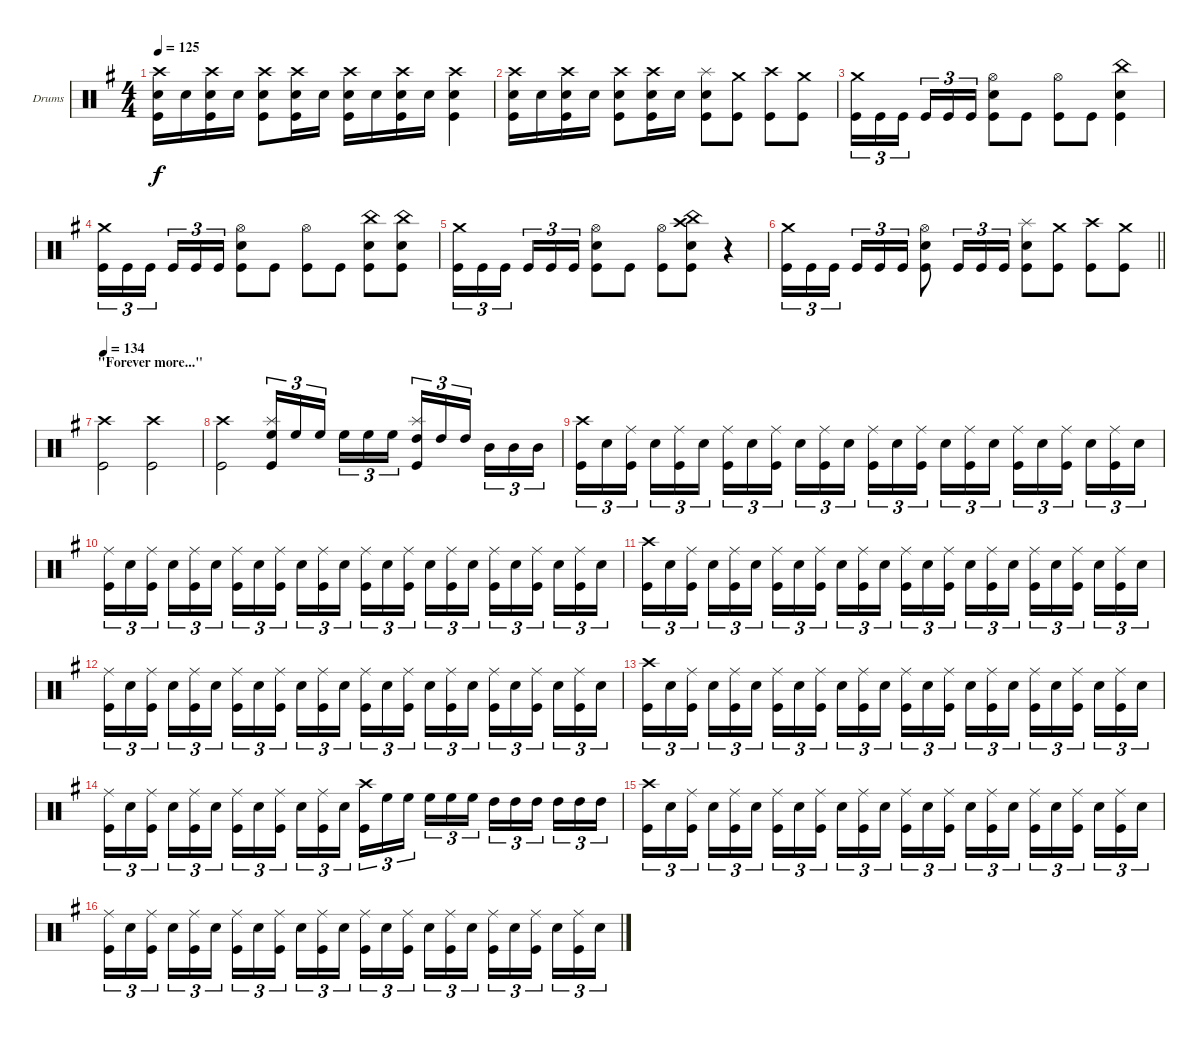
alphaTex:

\bracketExtendMode groupsimilarinstruments
\firstSystemTrackNameOrientation horizontal
\otherSystemsTrackNameOrientation horizontal
\track ("Drumkit" "Drums") {instrument percussion}
\staff {score}
\articulation defaults
\ts (4 4)
\tempo 125
\clef neutral
\scale
0.5
\ks g
("Crash high (hit)" "Snare (hit) 2" "Kick (hit)").16{dy f} "Snare (hit) 2".16 ("Crash high (hit)" "Snare (hit) 2" "Kick (hit)").16 "Snare (hit) 2".16 ("Crash high (hit)" "Snare (hit) 2" "Kick (hit)").8 ("Crash high (hit)" "Snare (hit) 2" "Kick (hit)").16 "Snare (hit) 2".16 ("Crash high (hit)" "Snare (hit) 2" "Kick (hit)").16 "Snare (hit) 2".16 ("Crash high (hit)" "Snare (hit) 2" "Kick (hit)").16 "Snare (hit) 2".16 ("Crash high (hit)" "Snare (hit) 2" "Kick (hit)").4 |
\scale
0.460317 ("Crash high (hit)" "Snare (hit) 2" "Kick (hit)").16 "Snare (hit) 2".16 ("Crash high (hit)" "Snare (hit) 2" "Kick (hit)").16 "Snare (hit) 2".16 ("Crash high (hit)" "Snare (hit) 2" "Kick (hit)").8 ("Crash high (hit)" "Snare (hit) 2" "Kick (hit)").16 "Snare (hit) 2".16 ("Splash (hit)" "Snare (hit) 2" "Kick (hit)").8 ("Crash medium (hit)" "Kick (hit)").8 ("Crash high (hit)" "Kick (hit)").8 ("Crash medium (hit)" "Kick (hit)").8 |
\scale
0.539683 ("Crash medium (hit)" "Kick (hit)").16{tu (3 2)} "Kick (hit)".16{tu (3 2)} "Kick (hit)".16{tu (3 2)} "Kick (hit)".16{tu (3 2)} "Kick (hit)".16{tu (3 2)} "Kick (hit)".16{tu (3 2)} ("Hi-Hat (open)" "Snare (hit) 2" "Kick (hit)").8 "Kick (hit)".8 ("Hi-Hat (open)" "Kick (hit)").8 "Kick (hit)".8 ("China (hit)" "Snare (hit) 2" "Kick (hit)").4 |
\scale
0.514286 ("Crash medium (hit)" "Kick (hit)").16{tu (3 2)} "Kick (hit)".16{tu (3 2)} "Kick (hit)".16{tu (3 2)} "Kick (hit)".16{tu (3 2)} "Kick (hit)".16{tu (3 2)} "Kick (hit)".16{tu (3 2)} ("Hi-Hat (open)" "Snare (hit) 2" "Kick (hit)").8 "Kick (hit)".8 ("Hi-Hat (open)" "Kick (hit)").8 "Kick (hit)".8 ("China (hit)" "Snare (hit) 2" "Kick (hit)").8 ("China (hit)" "Snare (hit) 2" "Kick (hit)").8 |
\scale
0.485714 ("Crash medium (hit)" "Kick (hit)").16{tu (3 2)} "Kick (hit)".16{tu (3 2)} "Kick (hit)".16{tu (3 2)} "Kick (hit)".16{tu (3 2)} "Kick (hit)".16{tu (3 2)} "Kick (hit)".16{tu (3 2)} ("Hi-Hat (open)" "Snare (hit) 2" "Kick (hit)").8 "Kick (hit)".8 ("Hi-Hat (open)" "Kick (hit)").8 ("China (hit)" "Crash high (hit)" "Snare (hit) 2" "Kick (hit)").8 r.4 |
\scale
0.745856
\barLineRight lightlight
("Crash medium (hit)" "Kick (hit)").16{tu (3 2)} "Kick (hit)".16{tu (3 2)} "Kick (hit)".16{tu (3 2)} "Kick (hit)".16{tu (3 2)} "Kick (hit)".16{tu (3 2)} "Kick (hit)".16{tu (3 2)} ("Hi-Hat (open)" "Snare (hit) 2" "Kick (hit)").8 "Kick (hit)".16{tu (3 2)} "Kick (hit)".16{tu (3 2)} "Kick (hit)".16{tu (3 2)} ("Splash (hit)" "Snare (hit) 2" "Kick (hit)").8 ("Crash medium (hit)" "Kick (hit)").8 ("Crash high (hit)" "Kick (hit)").8 ("Crash medium (hit)" "Kick (hit)").8 |
\section ("" "\"Forever more...\"")
\tempo 134
\scale
0.254144 ("Crash high (hit)" "Kick (hit)").2 ("Crash high (hit)" "Kick (hit)").2 |
\scale
0.4 ("Crash high (hit)" "Kick (hit)").2 ("Splash (hit)" "High Floor Tom (hit)" "Kick (hit)").16{tu (3 2)} "High Floor Tom (hit)".16{tu (3 2)} "High Floor Tom (hit)".16{tu (3 2)} "High Floor Tom (hit)".16{tu (3 2)} "High Floor Tom (hit)".16{tu (3 2)} "High Floor Tom (hit)".16{tu (3 2)} ("Splash (hit)" "High Tom (hit)" "Kick (hit)").16{tu (3 2)} "High Tom (hit)".16{tu (3 2)} "High Tom (hit)".16{tu (3 2)} "Mid Tom (hit)".16{tu (3 2)} "Mid Tom (hit)".16{tu (3 2)} "Mid Tom (hit)".16{tu (3 2)} |
\scale
0.6 ("Crash high (hit)" "Kick (hit)").16{tu (3 2)} "Snare (hit) 2".16{tu (3 2)} ("Ride (middle)" "Kick (hit)").16{tu (3 2)} "Snare (hit) 2".16{tu (3 2)} ("Ride (middle)" "Kick (hit)").16{tu (3 2)} "Snare (hit) 2".16{tu (3 2)} ("Ride (middle)" "Kick (hit)").16{tu (3 2)} "Snare (hit) 2".16{tu (3 2)} ("Ride (middle)" "Kick (hit)").16{tu (3 2)} "Snare (hit) 2".16{tu (3 2)} ("Ride (middle)" "Kick (hit)").16{tu (3 2)} "Snare (hit) 2".16{tu (3 2)} ("Ride (middle)" "Kick (hit)").16{tu (3 2)} "Snare (hit) 2".16{tu (3 2)} ("Ride (middle)" "Kick (hit)").16{tu (3 2)} "Snare (hit) 2".16{tu (3 2)} ("Ride (middle)" "Kick (hit)").16{tu (3 2)} "Snare (hit) 2".16{tu (3 2)} ("Ride (middle)" "Kick (hit)").16{tu (3 2)} "Snare (hit) 2".16{tu (3 2)} ("Ride (middle)" "Kick (hit)").16{tu (3 2)} "Snare (hit) 2".16{tu (3 2)} ("Ride (middle)" "Kick (hit)").16{tu (3 2)} "Snare (hit) 2".16{tu (3 2)} |
\scale
0.5 ("Ride (middle)" "Kick (hit)").16{tu (3 2)} "Snare (hit) 2".16{tu (3 2)} ("Ride (middle)" "Kick (hit)").16{tu (3 2)} "Snare (hit) 2".16{tu (3 2)} ("Ride (middle)" "Kick (hit)").16{tu (3 2)} "Snare (hit) 2".16{tu (3 2)} ("Ride (middle)" "Kick (hit)").16{tu (3 2)} "Snare (hit) 2".16{tu (3 2)} ("Ride (middle)" "Kick (hit)").16{tu (3 2)} "Snare (hit) 2".16{tu (3 2)} ("Ride (middle)" "Kick (hit)").16{tu (3 2)} "Snare (hit) 2".16{tu (3 2)} ("Ride (middle)" "Kick (hit)").16{tu (3 2)} "Snare (hit) 2".16{tu (3 2)} ("Ride (middle)" "Kick (hit)").16{tu (3 2)} "Snare (hit) 2".16{tu (3 2)} ("Ride (middle)" "Kick (hit)").16{tu (3 2)} "Snare (hit) 2".16{tu (3 2)} ("Ride (middle)" "Kick (hit)").16{tu (3 2)} "Snare (hit) 2".16{tu (3 2)} ("Ride (middle)" "Kick (hit)").16{tu (3 2)} "Snare (hit) 2".16{tu (3 2)} ("Ride (middle)" "Kick (hit)").16{tu (3 2)} "Snare (hit) 2".16{tu (3 2)} |
\scale
0.5 ("Crash high (hit)" "Kick (hit)").16{tu (3 2)} "Snare (hit) 2".16{tu (3 2)} ("Ride (middle)" "Kick (hit)").16{tu (3 2)} "Snare (hit) 2".16{tu (3 2)} ("Ride (middle)" "Kick (hit)").16{tu (3 2)} "Snare (hit) 2".16{tu (3 2)} ("Ride (middle)" "Kick (hit)").16{tu (3 2)} "Snare (hit) 2".16{tu (3 2)} ("Ride (middle)" "Kick (hit)").16{tu (3 2)} "Snare (hit) 2".16{tu (3 2)} ("Ride (middle)" "Kick (hit)").16{tu (3 2)} "Snare (hit) 2".16{tu (3 2)} ("Ride (middle)" "Kick (hit)").16{tu (3 2)} "Snare (hit) 2".16{tu (3 2)} ("Ride (middle)" "Kick (hit)").16{tu (3 2)} "Snare (hit) 2".16{tu (3 2)} ("Ride (middle)" "Kick (hit)").16{tu (3 2)} "Snare (hit) 2".16{tu (3 2)} ("Ride (middle)" "Kick (hit)").16{tu (3 2)} "Snare (hit) 2".16{tu (3 2)} ("Ride (middle)" "Kick (hit)").16{tu (3 2)} "Snare (hit) 2".16{tu (3 2)} ("Ride (middle)" "Kick (hit)").16{tu (3 2)} "Snare (hit) 2".16{tu (3 2)} |
\scale
0.5 ("Ride (middle)" "Kick (hit)").16{tu (3 2)} "Snare (hit) 2".16{tu (3 2)} ("Ride (middle)" "Kick (hit)").16{tu (3 2)} "Snare (hit) 2".16{tu (3 2)} ("Ride (middle)" "Kick (hit)").16{tu (3 2)} "Snare (hit) 2".16{tu (3 2)} ("Ride (middle)" "Kick (hit)").16{tu (3 2)} "Snare (hit) 2".16{tu (3 2)} ("Ride (middle)" "Kick (hit)").16{tu (3 2)} "Snare (hit) 2".16{tu (3 2)} ("Ride (middle)" "Kick (hit)").16{tu (3 2)} "Snare (hit) 2".16{tu (3 2)} ("Ride (middle)" "Kick (hit)").16{tu (3 2)} "Snare (hit) 2".16{tu (3 2)} ("Ride (middle)" "Kick (hit)").16{tu (3 2)} "Snare (hit) 2".16{tu (3 2)} ("Ride (middle)" "Kick (hit)").16{tu (3 2)} "Snare (hit) 2".16{tu (3 2)} ("Ride (middle)" "Kick (hit)").16{tu (3 2)} "Snare (hit) 2".16{tu (3 2)} ("Ride (middle)" "Kick (hit)").16{tu (3 2)} "Snare (hit) 2".16{tu (3 2)} ("Ride (middle)" "Kick (hit)").16{tu (3 2)} "Snare (hit) 2".16{tu (3 2)} |
\scale
0.5 ("Crash high (hit)" "Kick (hit)").16{tu (3 2)} "Snare (hit) 2".16{tu (3 2)} ("Ride (middle)" "Kick (hit)").16{tu (3 2)} "Snare (hit) 2".16{tu (3 2)} ("Ride (middle)" "Kick (hit)").16{tu (3 2)} "Snare (hit) 2".16{tu (3 2)} ("Ride (middle)" "Kick (hit)").16{tu (3 2)} "Snare (hit) 2".16{tu (3 2)} ("Ride (middle)" "Kick (hit)").16{tu (3 2)} "Snare (hit) 2".16{tu (3 2)} ("Ride (middle)" "Kick (hit)").16{tu (3 2)} "Snare (hit) 2".16{tu (3 2)} ("Ride (middle)" "Kick (hit)").16{tu (3 2)} "Snare (hit) 2".16{tu (3 2)} ("Ride (middle)" "Kick (hit)").16{tu (3 2)} "Snare (hit) 2".16{tu (3 2)} ("Ride (middle)" "Kick (hit)").16{tu (3 2)} "Snare (hit) 2".16{tu (3 2)} ("Ride (middle)" "Kick (hit)").16{tu (3 2)} "Snare (hit) 2".16{tu (3 2)} ("Ride (middle)" "Kick (hit)").16{tu (3 2)} "Snare (hit) 2".16{tu (3 2)} ("Ride (middle)" "Kick (hit)").16{tu (3 2)} "Snare (hit) 2".16{tu (3 2)} |
\scale
0.5 ("Ride (middle)" "Kick (hit)").16{tu (3 2)} "Snare (hit) 2".16{tu (3 2)} ("Ride (middle)" "Kick (hit)").16{tu (3 2)} "Snare (hit) 2".16{tu (3 2)} ("Ride (middle)" "Kick (hit)").16{tu (3 2)} "Snare (hit) 2".16{tu (3 2)} ("Ride (middle)" "Kick (hit)").16{tu (3 2)} "Snare (hit) 2".16{tu (3 2)} ("Ride (middle)" "Kick (hit)").16{tu (3 2)} "Snare (hit) 2".16{tu (3 2)} ("Ride (middle)" "Kick (hit)").16{tu (3 2)} "Snare (hit) 2".16{tu (3 2)} ("Crash high (hit)" "Kick (hit)").16{tu (3 2)} "High Floor Tom (hit)".16{tu (3 2)} "High Floor Tom (hit)".16{tu (3 2)} "High Floor Tom (hit)".16{tu (3 2)} "High Floor Tom (hit)".16{tu (3 2)} "High Floor Tom (hit)".16{tu (3 2)} "High Tom (hit)".16{tu (3 2)} "High Tom (hit)".16{tu (3 2)} "High Tom (hit)".16{tu (3 2)} "High Tom (hit)".16{tu (3 2)} "High Tom (hit)".16{tu (3 2)} "High Tom (hit)".16{tu (3 2)} |
\scale
0.5 ("Crash high (hit)" "Kick (hit)").16{tu (3 2)} "Snare (hit) 2".16{tu (3 2)} ("Ride (middle)" "Kick (hit)").16{tu (3 2)} "Snare (hit) 2".16{tu (3 2)} ("Ride (middle)" "Kick (hit)").16{tu (3 2)} "Snare (hit) 2".16{tu (3 2)} ("Ride (middle)" "Kick (hit)").16{tu (3 2)} "Snare (hit) 2".16{tu (3 2)} ("Ride (middle)" "Kick (hit)").16{tu (3 2)} "Snare (hit) 2".16{tu (3 2)} ("Ride (middle)" "Kick (hit)").16{tu (3 2)} "Snare (hit) 2".16{tu (3 2)} ("Ride (middle)" "Kick (hit)").16{tu (3 2)} "Snare (hit) 2".16{tu (3 2)} ("Ride (middle)" "Kick (hit)").16{tu (3 2)} "Snare (hit) 2".16{tu (3 2)} ("Ride (middle)" "Kick (hit)").16{tu (3 2)} "Snare (hit) 2".16{tu (3 2)} ("Ride (middle)" "Kick (hit)").16{tu (3 2)} "Snare (hit) 2".16{tu (3 2)} ("Ride (middle)" "Kick (hit)").16{tu (3 2)} "Snare (hit) 2".16{tu (3 2)} ("Ride (middle)" "Kick (hit)").16{tu (3 2)} "Snare (hit) 2".16{tu (3 2)} |
\scale
0.5 ("Ride (middle)" "Kick (hit)").16{tu (3 2)} "Snare (hit) 2".16{tu (3 2)} ("Ride (middle)" "Kick (hit)").16{tu (3 2)} "Snare (hit) 2".16{tu (3 2)} ("Ride (middle)" "Kick (hit)").16{tu (3 2)} "Snare (hit) 2".16{tu (3 2)} ("Ride (middle)" "Kick (hit)").16{tu (3 2)} "Snare (hit) 2".16{tu (3 2)} ("Ride (middle)" "Kick (hit)").16{tu (3 2)} "Snare (hit) 2".16{tu (3 2)} ("Ride (middle)" "Kick (hit)").16{tu (3 2)} "Snare (hit) 2".16{tu (3 2)} ("Ride (middle)" "Kick (hit)").16{tu (3 2)} "Snare (hit) 2".16{tu (3 2)} ("Ride (middle)" "Kick (hit)").16{tu (3 2)} "Snare (hit) 2".16{tu (3 2)} ("Ride (middle)" "Kick (hit)").16{tu (3 2)} "Snare (hit) 2".16{tu (3 2)} ("Ride (middle)" "Kick (hit)").16{tu (3 2)} "Snare (hit) 2".16{tu (3 2)} ("Ride (middle)" "Kick (hit)").16{tu (3 2)} "Snare (hit) 2".16{tu (3 2)} ("Ride (middle)" "Kick (hit)").16{tu (3 2)} "Snare (hit) 2".16{tu (3 2)}
